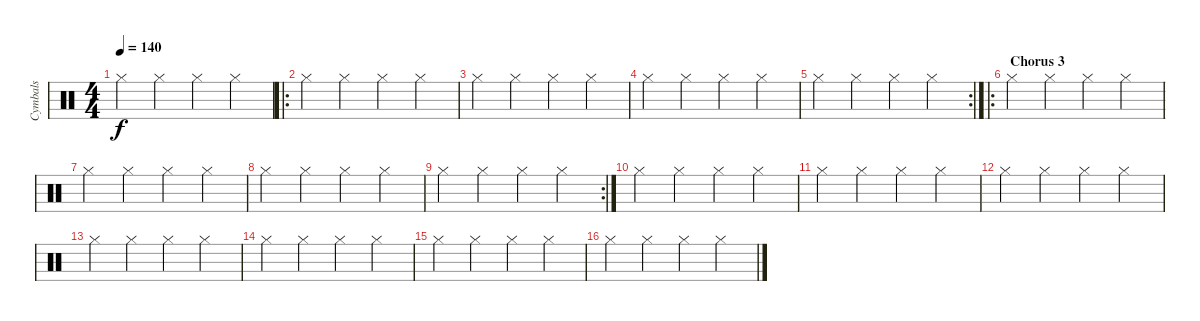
\track ("Cymbals" "Cymbals") {instrument percussion}
\staff {score}
\articulation defaults
\ts (4 4)
\tempo 140
\clef neutral
\ks c "Hi-Hat (closed)".4{dy f} "Hi-Hat (closed)".4 "Hi-Hat (closed)".4 "Hi-Hat (closed)".4
|
\ro "Hi-Hat (closed)".4 "Hi-Hat (closed)".4 "Hi-Hat (closed)".4 "Hi-Hat (closed)".4
|
"Hi-Hat (closed)".4 "Hi-Hat (closed)".4 "Hi-Hat (closed)".4 "Hi-Hat (closed)".4 |
"Hi-Hat (closed)".4 "Hi-Hat (closed)".4 "Hi-Hat (closed)".4 "Hi-Hat (closed)".4 |
\rc 2 "Hi-Hat (closed)".4 "Hi-Hat (closed)".4 "Hi-Hat (closed)".4 "Hi-Hat (closed)".4
|
\ro
\section ("" " Chorus 3")
"Hi-Hat (closed)".4 "Hi-Hat (closed)".4 "Hi-Hat (closed)".4 "Hi-Hat (closed)".4 |
"Hi-Hat (closed)".4 "Hi-Hat (closed)".4 "Hi-Hat (closed)".4 "Hi-Hat (closed)".4 |
"Hi-Hat (closed)".4 "Hi-Hat (closed)".4 "Hi-Hat (closed)".4 "Hi-Hat (closed)".4 |
\rc 2 "Hi-Hat (closed)".4 "Hi-Hat (closed)".4 "Hi-Hat (closed)".4 "Hi-Hat (closed)".4
|
"Hi-Hat (closed)".4 "Hi-Hat (closed)".4 "Hi-Hat (closed)".4 "Hi-Hat (closed)".4 |
"Hi-Hat (closed)".4 "Hi-Hat (closed)".4 "Hi-Hat (closed)".4 "Hi-Hat (closed)".4 |
"Hi-Hat (closed)".4 "Hi-Hat (closed)".4 "Hi-Hat (closed)".4 "Hi-Hat (closed)".4 |
"Hi-Hat (closed)".4 "Hi-Hat (closed)".4 "Hi-Hat (closed)".4 "Hi-Hat (closed)".4 |
"Hi-Hat (closed)".4 "Hi-Hat (closed)".4 "Hi-Hat (closed)".4 "Hi-Hat (closed)".4 |
"Hi-Hat (closed)".4 "Hi-Hat (closed)".4 "Hi-Hat (closed)".4 "Hi-Hat (closed)".4 |
"Hi-Hat (closed)".4 "Hi-Hat (closed)".4 "Hi-Hat (closed)".4 "Hi-Hat (closed)".4
